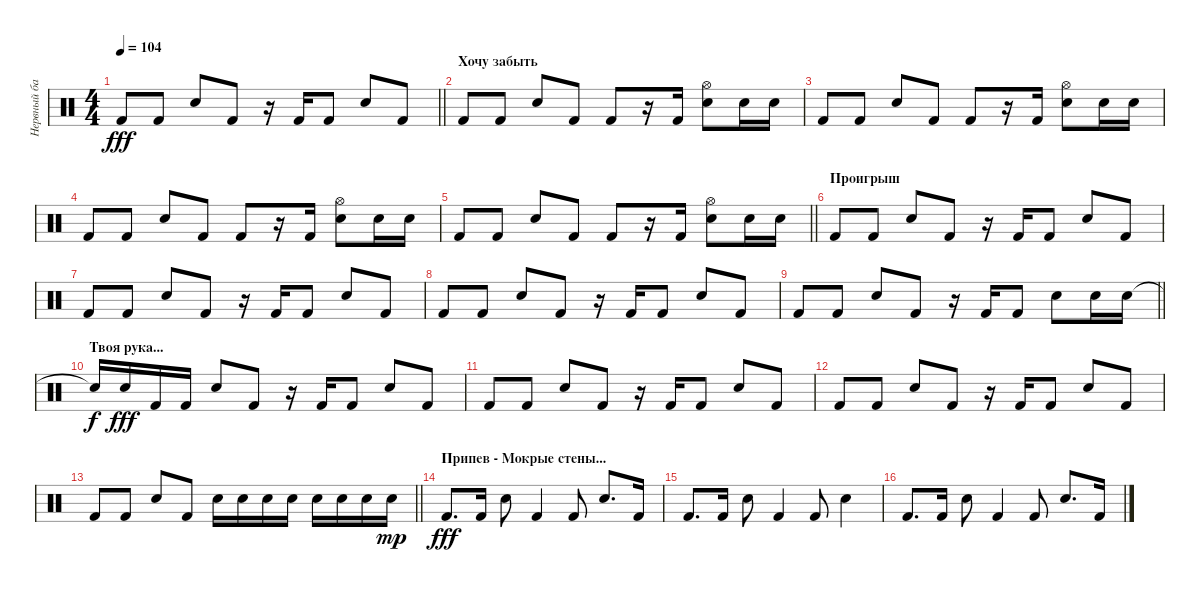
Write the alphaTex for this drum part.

\track ("Нервный барабанщик" "Нервный ба") {instrument percussion}
\staff {score}
\articulation defaults
\ts (4 4)
\tempo 104
\clef neutral
\barLineRight lightlight
\ks c "Kick (hit) 2".8{dy fff} "Kick (hit) 2".8 "Snare (hit) 2".8 "Kick (hit) 2".8
r.16 "Kick (hit) 2".16 "Kick (hit) 2".8 "Snare (hit) 2".8 "Kick (hit) 2".8 |
\section ("" "Хочу забыть")
"Kick (hit) 2".8 "Kick (hit) 2".8 "Snare (hit) 2".8 "Kick (hit) 2".8 "Kick (hit) 2".8 r.16 "Kick (hit) 2".16 ("Hi-Hat (open)" "Snare (hit) 2").8 "Snare (hit) 2".16 "Snare (hit) 2".16 |
"Kick (hit) 2".8 "Kick (hit) 2".8 "Snare (hit) 2".8 "Kick (hit) 2".8 "Kick (hit) 2".8 r.16 "Kick (hit) 2".16 ("Hi-Hat (open)" "Snare (hit) 2").8 "Snare (hit) 2".16 "Snare (hit) 2".16 |
"Kick (hit) 2".8 "Kick (hit) 2".8 "Snare (hit) 2".8 "Kick (hit) 2".8 "Kick (hit) 2".8 r.16 "Kick (hit) 2".16 ("Hi-Hat (open)" "Snare (hit) 2").8 "Snare (hit) 2".16 "Snare (hit) 2".16 |
\barLineRight lightlight "Kick (hit) 2".8 "Kick (hit) 2".8 "Snare (hit) 2".8 "Kick (hit) 2".8 "Kick (hit) 2".8
r.16 "Kick (hit) 2".16 ("Hi-Hat (open)" "Snare (hit) 2").8 "Snare (hit) 2".16 "Snare (hit) 2".16 |
\section ("" "Проигрыш")
"Kick (hit) 2".8 "Kick (hit) 2".8 "Snare (hit) 2".8 "Kick (hit) 2".8 r.16 "Kick (hit) 2".16 "Kick (hit) 2".8 "Snare (hit) 2".8 "Kick (hit) 2".8 |
"Kick (hit) 2".8 "Kick (hit) 2".8 "Snare (hit) 2".8 "Kick (hit) 2".8 r.16 "Kick (hit) 2".16 "Kick (hit) 2".8 "Snare (hit) 2".8 "Kick (hit) 2".8 |
"Kick (hit) 2".8 "Kick (hit) 2".8 "Snare (hit) 2".8 "Kick (hit) 2".8 r.16 "Kick (hit) 2".16 "Kick (hit) 2".8 "Snare (hit) 2".8 "Kick (hit) 2".8 |
\barLineRight lightlight "Kick (hit) 2".8 "Kick (hit) 2".8 "Snare (hit) 2".8 "Kick (hit) 2".8
r.16 "Kick (hit) 2".16 "Kick (hit) 2".8 "Snare (hit) 2".8 "Snare (hit) 2".16 "Snare (hit) 2".16 |
\section ("" "Твоя рука...")
"Snare (hit) 2"{t}.16{dy f} "Snare (hit) 2".16{dy fff} "Kick (hit) 2".16 "Kick (hit) 2".16 "Snare (hit) 2".8 "Kick (hit) 2".8 r.16 "Kick (hit) 2".16 "Kick (hit) 2".8 "Snare (hit) 2".8 "Kick (hit) 2".8 |
"Kick (hit) 2".8 "Kick (hit) 2".8 "Snare (hit) 2".8 "Kick (hit) 2".8 r.16 "Kick (hit) 2".16 "Kick (hit) 2".8 "Snare (hit) 2".8 "Kick (hit) 2".8 |
"Kick (hit) 2".8 "Kick (hit) 2".8 "Snare (hit) 2".8 "Kick (hit) 2".8 r.16 "Kick (hit) 2".16 "Kick (hit) 2".8 "Snare (hit) 2".8 "Kick (hit) 2".8 |
\barLineRight lightlight "Kick (hit) 2".8 "Kick (hit) 2".8 "Snare (hit) 2".8 "Kick (hit) 2".8 "Snare (hit) 2".16 "Snare (hit) 2".16 "Snare (hit) 2".16 "Snare (hit) 2".16 "Snare (hit) 2".16 "Snare (hit) 2".16 "Snare (hit) 2".16 "Snare (hit) 2".16{dy mp}
|
\section ("" "Припев - Мокрые стены...")
"Kick (hit) 2".8{d dy fff} "Kick (hit) 2".16 "Snare (hit) 2".8 "Kick (hit) 2".4 "Kick (hit) 2".8 "Snare (hit) 2".8{d} "Kick (hit) 2".16 |
"Kick (hit) 2".8{d} "Kick (hit) 2".16 "Snare (hit) 2".8 "Kick (hit) 2".4 "Kick (hit) 2".8 "Snare (hit) 2".4 |
"Kick (hit) 2".8{d} "Kick (hit) 2".16 "Snare (hit) 2".8 "Kick (hit) 2".4 "Kick (hit) 2".8 "Snare (hit) 2".8{d} "Kick (hit) 2".16
